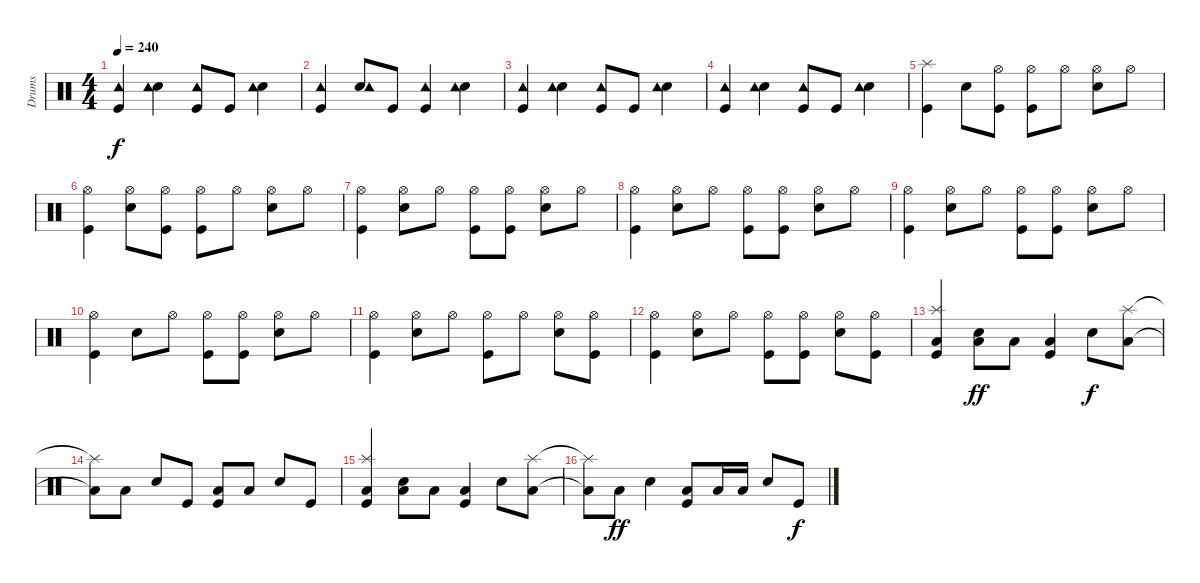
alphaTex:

\track ("Drums" "Drums") {instrument percussion}
\staff {score}
\articulation defaults
\ts (4 4)
\tempo 240
\clef neutral
\ks c
("Kick (hit)" "Tambourine (hit)").4{dy f} ("Snare (hit) 2" "Tambourine (hit)").4 ("Kick (hit)" "Tambourine (hit)").8 "Kick (hit)".8 ("Snare (hit) 2" "Tambourine (hit)").4 |
("Kick (hit)" "Tambourine (hit)").4 ("Snare (hit) 2" "Tambourine (hit)").8 "Kick (hit)".8 ("Kick (hit)" "Tambourine (hit)").4 ("Snare (hit) 2" "Tambourine (hit)").4 |
("Kick (hit)" "Tambourine (hit)").4 ("Snare (hit) 2" "Tambourine (hit)").4 ("Kick (hit)" "Tambourine (hit)").8 "Kick (hit)".8 ("Snare (hit) 2" "Tambourine (hit)").4 |
("Kick (hit)" "Tambourine (hit)").4 ("Snare (hit) 2" "Tambourine (hit)").4 ("Kick (hit)" "Tambourine (hit)").8 "Kick (hit)".8 ("Snare (hit) 2" "Tambourine (hit)").4 |
("Kick (hit)" "Splash (hit)").4 "Snare (hit) 2".8 ("Kick (hit)" "Hi-Hat (open)").8 ("Kick (hit)" "Hi-Hat (open)").8 "Hi-Hat (open)".8 ("Snare (hit) 2" "Hi-Hat (open)").8 "Hi-Hat (open)".8 |
("Kick (hit)" "Hi-Hat (open)").4 ("Snare (hit) 2" "Hi-Hat (open)").8 ("Kick (hit)" "Hi-Hat (open)").8 ("Kick (hit)" "Hi-Hat (open)").8 "Hi-Hat (open)".8 ("Snare (hit) 2" "Hi-Hat (open)").8 "Hi-Hat (open)".8 |
("Kick (hit)" "Hi-Hat (open)").4 ("Snare (hit) 2" "Hi-Hat (open)").8 "Hi-Hat (open)".8 ("Kick (hit)" "Hi-Hat (open)").8 ("Kick (hit)" "Hi-Hat (open)").8 ("Snare (hit) 2" "Hi-Hat (open)").8 "Hi-Hat (open)".8 |
("Kick (hit)" "Hi-Hat (open)").4 ("Snare (hit) 2" "Hi-Hat (open)").8 "Hi-Hat (open)".8 ("Kick (hit)" "Hi-Hat (open)").8 ("Kick (hit)" "Hi-Hat (open)").8 ("Snare (hit) 2" "Hi-Hat (open)").8 "Hi-Hat (open)".8 |
("Kick (hit)" "Hi-Hat (open)").4 ("Snare (hit) 2" "Hi-Hat (open)").8 "Hi-Hat (open)".8 ("Kick (hit)" "Hi-Hat (open)").8 ("Kick (hit)" "Hi-Hat (open)").8 ("Snare (hit) 2" "Hi-Hat (open)").8 "Hi-Hat (open)".8 |
("Kick (hit)" "Hi-Hat (open)").4 "Snare (hit) 2".8 "Hi-Hat (open)".8 ("Kick (hit)" "Hi-Hat (open)").8 ("Kick (hit)" "Hi-Hat (open)").8 ("Snare (hit) 2" "Hi-Hat (open)").8 "Hi-Hat (open)".8 |
("Kick (hit)" "Hi-Hat (open)").4 ("Snare (hit) 2" "Hi-Hat (open)").8 "Hi-Hat (open)".8 ("Kick (hit)" "Hi-Hat (open)").8 "Hi-Hat (open)".8 ("Snare (hit) 2" "Hi-Hat (open)").8 ("Kick (hit)" "Hi-Hat (open)").8 |
("Kick (hit)" "Hi-Hat (open)").4 ("Snare (hit) 2" "Hi-Hat (open)").8 "Hi-Hat (open)".8 ("Kick (hit)" "Hi-Hat (open)").8 ("Kick (hit)" "Hi-Hat (open)").8 ("Snare (hit) 2" "Hi-Hat (open)").8 ("Kick (hit)" "Hi-Hat (open)").8 |
("Splash (hit)" "Low Floor Tom (hit)" "Kick (hit)").4 ("Low Floor Tom (hit)" "Snare (hit) 2").8{dy ff} "Low Floor Tom (hit)".8 ("Low Floor Tom (hit)" "Kick (hit)").4 "Snare (hit) 2".8{dy f} ("Splash (hit)" "Low Floor Tom (hit)").8 |
("Splash (hit)"{t} "Low Floor Tom (hit)"{t}).8 "Low Floor Tom (hit)".8 "Snare (hit) 2".8 "Kick (hit)".8 ("Low Floor Tom (hit)" "Kick (hit)").8 "Low Floor Tom (hit)".8 "Snare (hit) 2".8 "Kick (hit)".8 |
("Splash (hit)" "Low Floor Tom (hit)" "Kick (hit)").4 ("Low Floor Tom (hit)" "Snare (hit) 2").8 "Low Floor Tom (hit)".8 ("Low Floor Tom (hit)" "Kick (hit)").4 "Snare (hit) 2".8 ("Splash (hit)" "Low Floor Tom (hit)").8 |
("Splash (hit)"{t} "Low Floor Tom (hit)"{t}).8 "Low Floor Tom (hit)".8{dy ff} "Snare (hit) 2".4 ("Low Floor Tom (hit)" "Kick (hit)").8 "Low Floor Tom (hit)".16 "Low Floor Tom (hit)".16 "Snare (hit) 2".8 "Kick (hit)".8{dy f}
